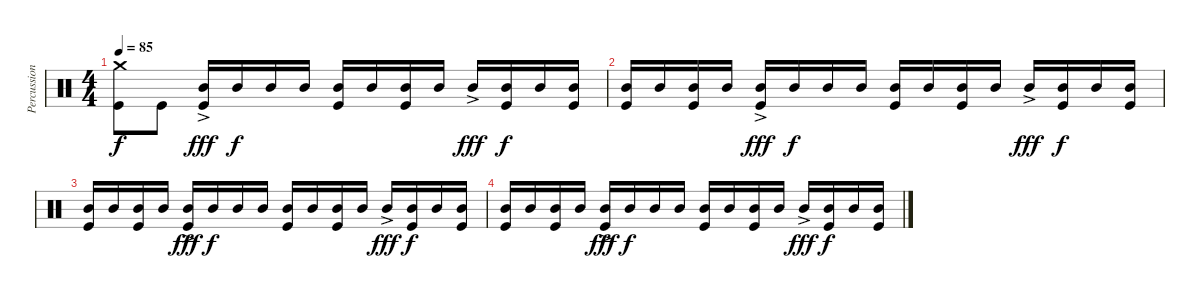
\track ("Percussion" "Percussion") {instrument percussion}
\staff {score}
\articulation defaults
\ts (4 4)
\tempo 85
\clef neutral
\ks c
("Crash medium (hit)" "Kick (hit)").8{dy f} "Kick (hit)".8 ("Mid Tom (hit)"{ac} "Kick (hit)").16{dy fff} "Mid Tom (hit)".16{dy f} "Mid Tom (hit)".16 "Mid Tom (hit)".16 ("Mid Tom (hit)" "Kick (hit)").16 "Mid Tom (hit)".16 ("Mid Tom (hit)" "Kick (hit)").16 "Mid Tom (hit)".16 "Mid Tom (hit)"{ac}.16{dy fff} ("Mid Tom (hit)" "Kick (hit)").16{dy f} "Mid Tom (hit)".16 ("Mid Tom (hit)" "Kick (hit)").16 |
("Mid Tom (hit)" "Kick (hit)").16 "Mid Tom (hit)".16 ("Mid Tom (hit)" "Kick (hit)").16 "Mid Tom (hit)".16 ("Mid Tom (hit)"{ac} "Kick (hit)").16{dy fff} "Mid Tom (hit)".16{dy f} "Mid Tom (hit)".16 "Mid Tom (hit)".16 ("Mid Tom (hit)" "Kick (hit)").16 "Mid Tom (hit)".16 ("Mid Tom (hit)" "Kick (hit)").16 "Mid Tom (hit)".16 "Mid Tom (hit)"{ac}.16{dy fff} ("Mid Tom (hit)" "Kick (hit)").16{dy f} "Mid Tom (hit)".16 ("Mid Tom (hit)" "Kick (hit)").16 |
("Mid Tom (hit)" "Kick (hit)").16 "Mid Tom (hit)".16 ("Mid Tom (hit)" "Kick (hit)").16 "Mid Tom (hit)".16 ("Mid Tom (hit)"{ac} "Kick (hit)").16{dy fff} "Mid Tom (hit)".16{dy f} "Mid Tom (hit)".16 "Mid Tom (hit)".16 ("Mid Tom (hit)" "Kick (hit)").16 "Mid Tom (hit)".16 ("Mid Tom (hit)" "Kick (hit)").16 "Mid Tom (hit)".16 "Mid Tom (hit)"{ac}.16{dy fff} ("Mid Tom (hit)" "Kick (hit)").16{dy f} "Mid Tom (hit)".16 ("Mid Tom (hit)" "Kick (hit)").16 |
("Mid Tom (hit)" "Kick (hit)").16 "Mid Tom (hit)".16 ("Mid Tom (hit)" "Kick (hit)").16 "Mid Tom (hit)".16 ("Mid Tom (hit)"{ac} "Kick (hit)").16{dy fff} "Mid Tom (hit)".16{dy f} "Mid Tom (hit)".16 "Mid Tom (hit)".16 ("Mid Tom (hit)" "Kick (hit)").16 "Mid Tom (hit)".16 ("Mid Tom (hit)" "Kick (hit)").16 "Mid Tom (hit)".16 "Mid Tom (hit)"{ac}.16{dy fff} ("Mid Tom (hit)" "Kick (hit)").16{dy f} "Mid Tom (hit)".16 ("Mid Tom (hit)" "Kick (hit)").16
